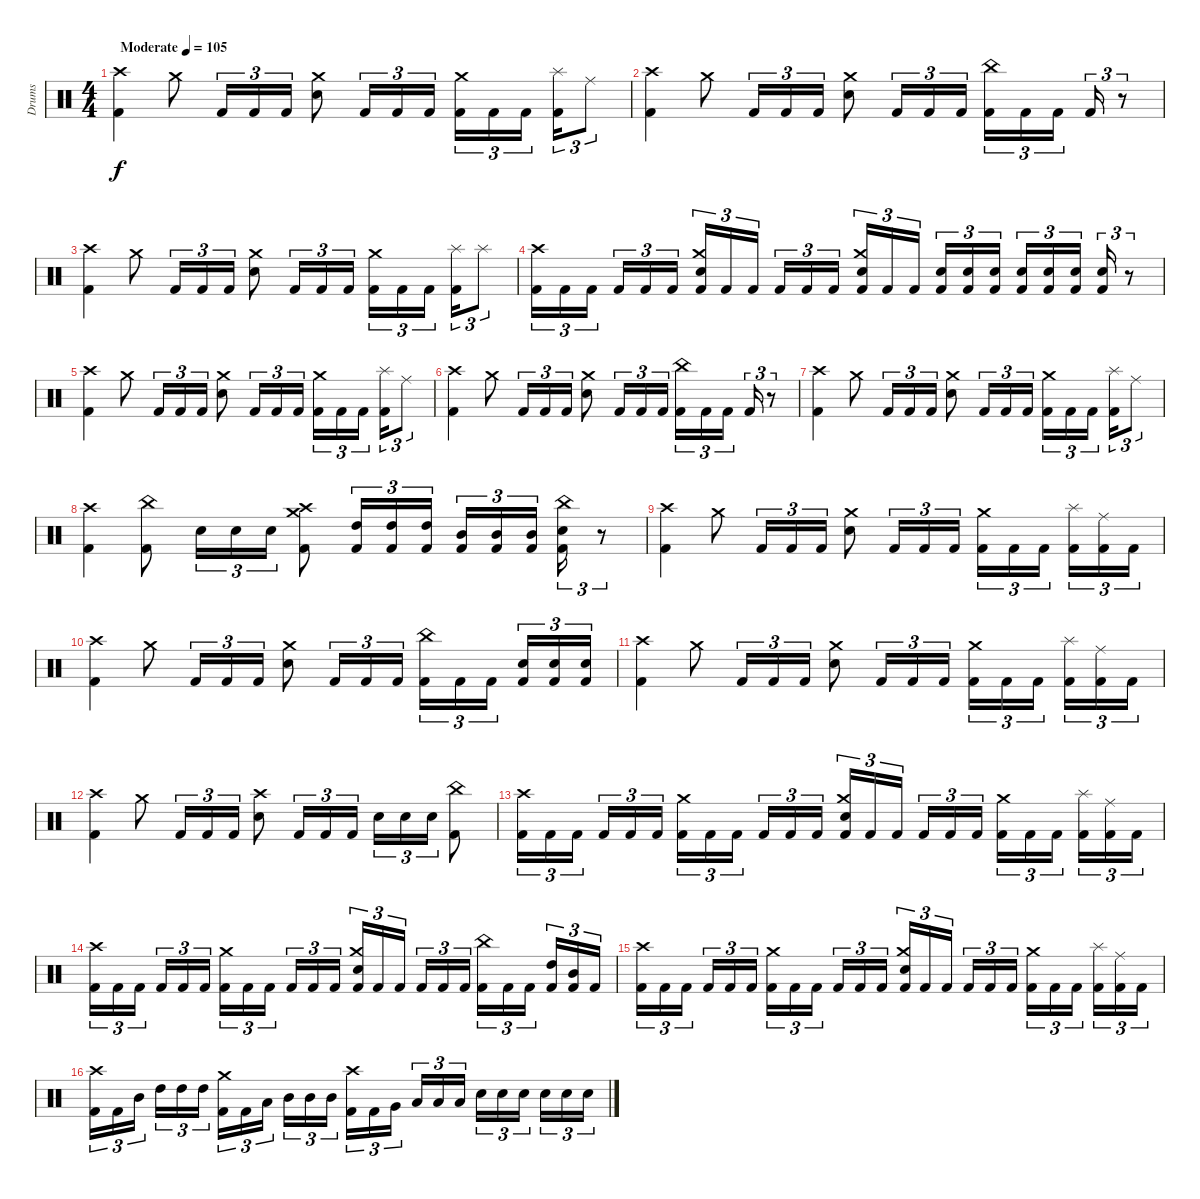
\track ("Drums" "Drums") {instrument percussion}
\staff {score}
\articulation defaults
\ts (4 4)
\tempo (105 "Moderate")
\clef neutral
\ks c
("Crash high (hit)" "Kick (hit) 2").4{dy f} "Crash medium (hit)".8 "Kick (hit) 2".16{tu (3 2)} "Kick (hit) 2".16{tu (3 2)} "Kick (hit) 2".16{tu (3 2)} ("Crash medium (hit)" "Electric Snare (hit)").8 "Kick (hit) 2".16{tu (3 2)} "Kick (hit) 2".16{tu (3 2)} "Kick (hit) 2".16{tu (3 2)} ("Crash medium (hit)" "Kick (hit) 2").16{tu (3 2)} "Kick (hit) 2".16{tu (3 2)} "Kick (hit) 2".16{tu (3 2) beam splitsecondary} ("Splash (hit)" "Kick (hit) 2").16{tu (3 2)} "Ride (middle)".8{tu (3 2)} |
("Crash high (hit)" "Kick (hit) 2").4 "Crash medium (hit)".8 "Kick (hit) 2".16{tu (3 2)} "Kick (hit) 2".16{tu (3 2)} "Kick (hit) 2".16{tu (3 2)} ("Crash medium (hit)" "Electric Snare (hit)").8 "Kick (hit) 2".16{tu (3 2)} "Kick (hit) 2".16{tu (3 2)} "Kick (hit) 2".16{tu (3 2)} ("China (hit)" "Kick (hit) 2").16{tu (3 2)} "Kick (hit) 2".16{tu (3 2)} "Kick (hit) 2".16{tu (3 2) beam splitsecondary} "Kick (hit) 2".16{tu (3 2)} r.8{tu (3 2)} |
("Crash high (hit)" "Kick (hit) 2").4 "Crash medium (hit)".8 "Kick (hit) 2".16{tu (3 2)} "Kick (hit) 2".16{tu (3 2)} "Kick (hit) 2".16{tu (3 2)} ("Crash medium (hit)" "Electric Snare (hit)").8 "Kick (hit) 2".16{tu (3 2)} "Kick (hit) 2".16{tu (3 2)} "Kick (hit) 2".16{tu (3 2)} ("Crash medium (hit)" "Kick (hit) 2").16{tu (3 2)} "Kick (hit) 2".16{tu (3 2)} "Kick (hit) 2".16{tu (3 2) beam splitsecondary} ("Splash (hit)" "Kick (hit) 2").16{tu (3 2)} "Splash (hit)".8{tu (3 2)} |
("Crash high (hit)" "Kick (hit) 2").16{tu (3 2)} "Kick (hit) 2".16{tu (3 2)} "Kick (hit) 2".16{tu (3 2) beam splitsecondary} "Kick (hit) 2".16{tu (3 2)} "Kick (hit) 2".16{tu (3 2)} "Kick (hit) 2".16{tu (3 2)} ("Crash medium (hit)" "Electric Snare (hit)" "Kick (hit) 2").16{tu (3 2)} "Kick (hit) 2".16{tu (3 2)} "Kick (hit) 2".16{tu (3 2) beam splitsecondary} "Kick (hit) 2".16{tu (3 2)} "Kick (hit) 2".16{tu (3 2)} "Kick (hit) 2".16{tu (3 2)} ("Crash medium (hit)" "Electric Snare (hit)" "Kick (hit) 2").16{tu (3 2)} "Kick (hit) 2".16{tu (3 2)} "Kick (hit) 2".16{tu (3 2) beam splitsecondary} ("Electric Snare (hit)" "Kick (hit) 2").16{tu (3 2)} ("Electric Snare (hit)" "Kick (hit) 2").16{tu (3 2)} ("Electric Snare (hit)" "Kick (hit) 2").16{tu (3 2)} ("Electric Snare (hit)" "Kick (hit) 2").16{tu (3 2)} ("Electric Snare (hit)" "Kick (hit) 2").16{tu (3 2)} ("Electric Snare (hit)" "Kick (hit) 2").16{tu (3 2) beam splitsecondary} ("Electric Snare (hit)" "Kick (hit) 2").16{tu (3 2)} r.8{tu (3 2)} |
("Crash high (hit)" "Kick (hit) 2").4 "Crash medium (hit)".8 "Kick (hit) 2".16{tu (3 2)} "Kick (hit) 2".16{tu (3 2)} "Kick (hit) 2".16{tu (3 2)} ("Crash medium (hit)" "Electric Snare (hit)").8 "Kick (hit) 2".16{tu (3 2)} "Kick (hit) 2".16{tu (3 2)} "Kick (hit) 2".16{tu (3 2)} ("Crash medium (hit)" "Kick (hit) 2").16{tu (3 2)} "Kick (hit) 2".16{tu (3 2)} "Kick (hit) 2".16{tu (3 2) beam splitsecondary} ("Splash (hit)" "Kick (hit) 2").16{tu (3 2)} "Ride (middle)".8{tu (3 2)} |
("Crash high (hit)" "Kick (hit) 2").4 "Crash medium (hit)".8 "Kick (hit) 2".16{tu (3 2)} "Kick (hit) 2".16{tu (3 2)} "Kick (hit) 2".16{tu (3 2)} ("Crash medium (hit)" "Electric Snare (hit)").8 "Kick (hit) 2".16{tu (3 2)} "Kick (hit) 2".16{tu (3 2)} "Kick (hit) 2".16{tu (3 2)} ("China (hit)" "Kick (hit) 2").16{tu (3 2)} "Kick (hit) 2".16{tu (3 2)} "Kick (hit) 2".16{tu (3 2) beam splitsecondary} "Kick (hit) 2".16{tu (3 2)} r.8{tu (3 2)} |
("Crash high (hit)" "Kick (hit) 2").4 "Crash medium (hit)".8 "Kick (hit) 2".16{tu (3 2)} "Kick (hit) 2".16{tu (3 2)} "Kick (hit) 2".16{tu (3 2)} ("Crash medium (hit)" "Electric Snare (hit)").8 "Kick (hit) 2".16{tu (3 2)} "Kick (hit) 2".16{tu (3 2)} "Kick (hit) 2".16{tu (3 2)} ("Crash medium (hit)" "Kick (hit) 2").16{tu (3 2)} "Kick (hit) 2".16{tu (3 2)} "Kick (hit) 2".16{tu (3 2) beam splitsecondary} ("Splash (hit)" "Kick (hit) 2").16{tu (3 2)} "Ride (middle)".8{tu (3 2)} |
("Crash high (hit)" "Kick (hit) 2").4 ("China (hit)" "Kick (hit) 2").8 "Electric Snare (hit)".16{tu (3 2)} "Electric Snare (hit)".16{tu (3 2)} "Electric Snare (hit)".16{tu (3 2)} ("Crash high (hit)" "Crash medium (hit)" "Kick (hit) 2").8 ("High Tom (hit)" "Kick (hit) 2").16{tu (3 2)} ("High Tom (hit)" "Kick (hit) 2").16{tu (3 2)} ("High Tom (hit)" "Kick (hit) 2").16{tu (3 2)} ("Mid Tom (hit)" "Kick (hit) 2").16{tu (3 2)} ("Mid Tom (hit)" "Kick (hit) 2").16{tu (3 2)} ("Mid Tom (hit)" "Kick (hit) 2").16{tu (3 2) beam splitsecondary} ("China (hit)" "Electric Snare (hit)" "Kick (hit) 2").16{tu (3 2)} r.8{tu (3 2)} |
("Crash high (hit)" "Kick (hit) 2").4 "Crash medium (hit)".8 "Kick (hit) 2".16{tu (3 2)} "Kick (hit) 2".16{tu (3 2)} "Kick (hit) 2".16{tu (3 2)} ("Crash medium (hit)" "Electric Snare (hit)").8 "Kick (hit) 2".16{tu (3 2)} "Kick (hit) 2".16{tu (3 2)} "Kick (hit) 2".16{tu (3 2)} ("Crash medium (hit)" "Kick (hit) 2").16{tu (3 2)} "Kick (hit) 2".16{tu (3 2)} "Kick (hit) 2".16{tu (3 2) beam splitsecondary} ("Splash (hit)" "Kick (hit) 2").16{tu (3 2)} ("Ride (middle)" "Kick (hit) 2").16{tu (3 2)} "Kick (hit) 2".16{tu (3 2)} |
("Crash high (hit)" "Kick (hit) 2").4 "Crash medium (hit)".8 "Kick (hit) 2".16{tu (3 2)} "Kick (hit) 2".16{tu (3 2)} "Kick (hit) 2".16{tu (3 2)} ("Crash medium (hit)" "Electric Snare (hit)").8 "Kick (hit) 2".16{tu (3 2)} "Kick (hit) 2".16{tu (3 2)} "Kick (hit) 2".16{tu (3 2)} ("China (hit)" "Kick (hit) 2").16{tu (3 2)} "Kick (hit) 2".16{tu (3 2)} "Kick (hit) 2".16{tu (3 2) beam splitsecondary} ("Electric Snare (hit)" "Kick (hit) 2").16{tu (3 2)} ("Electric Snare (hit)" "Kick (hit) 2").16{tu (3 2)} ("Electric Snare (hit)" "Kick (hit) 2").16{tu (3 2)} |
("Crash high (hit)" "Kick (hit) 2").4 "Crash medium (hit)".8 "Kick (hit) 2".16{tu (3 2)} "Kick (hit) 2".16{tu (3 2)} "Kick (hit) 2".16{tu (3 2)} ("Crash medium (hit)" "Electric Snare (hit)").8 "Kick (hit) 2".16{tu (3 2)} "Kick (hit) 2".16{tu (3 2)} "Kick (hit) 2".16{tu (3 2)} ("Crash medium (hit)" "Kick (hit) 2").16{tu (3 2)} "Kick (hit) 2".16{tu (3 2)} "Kick (hit) 2".16{tu (3 2) beam splitsecondary} ("Splash (hit)" "Kick (hit) 2").16{tu (3 2)} ("Ride (middle)" "Kick (hit) 2").16{tu (3 2)} "Kick (hit) 2".16{tu (3 2)} |
("Crash high (hit)" "Kick (hit) 2").4 "Crash medium (hit)".8 "Kick (hit) 2".16{tu (3 2)} "Kick (hit) 2".16{tu (3 2)} "Kick (hit) 2".16{tu (3 2)} ("Crash high (hit)" "Electric Snare (hit)").8 "Kick (hit) 2".16{tu (3 2)} "Kick (hit) 2".16{tu (3 2)} "Kick (hit) 2".16{tu (3 2)} "Electric Snare (hit)".16{tu (3 2)} "Electric Snare (hit)".16{tu (3 2)} "Electric Snare (hit)".16{tu (3 2)} ("China (hit)" "Kick (hit) 2").8 |
("Crash high (hit)" "Kick (hit) 2").16{tu (3 2)} "Kick (hit) 2".16{tu (3 2)} "Kick (hit) 2".16{tu (3 2) beam splitsecondary} "Kick (hit) 2".16{tu (3 2)} "Kick (hit) 2".16{tu (3 2)} "Kick (hit) 2".16{tu (3 2)} ("Crash medium (hit)" "Kick (hit) 2").16{tu (3 2)} "Kick (hit) 2".16{tu (3 2)} "Kick (hit) 2".16{tu (3 2) beam splitsecondary} "Kick (hit) 2".16{tu (3 2)} "Kick (hit) 2".16{tu (3 2)} "Kick (hit) 2".16{tu (3 2)} ("Crash medium (hit)" "Electric Snare (hit)" "Kick (hit) 2").16{tu (3 2)} "Kick (hit) 2".16{tu (3 2)} "Kick (hit) 2".16{tu (3 2) beam splitsecondary} "Kick (hit) 2".16{tu (3 2)} "Kick (hit) 2".16{tu (3 2)} "Kick (hit) 2".16{tu (3 2)} ("Crash medium (hit)" "Kick (hit) 2").16{tu (3 2)} "Kick (hit) 2".16{tu (3 2)} "Kick (hit) 2".16{tu (3 2) beam splitsecondary} ("Splash (hit)" "Kick (hit) 2").16{tu (3 2)} ("Ride (middle)" "Kick (hit) 2").16{tu (3 2)} "Kick (hit) 2".16{tu (3 2)} |
("Crash high (hit)" "Kick (hit) 2").16{tu (3 2)} "Kick (hit) 2".16{tu (3 2)} "Kick (hit) 2".16{tu (3 2) beam splitsecondary} "Kick (hit) 2".16{tu (3 2)} "Kick (hit) 2".16{tu (3 2)} "Kick (hit) 2".16{tu (3 2)} ("Crash medium (hit)" "Kick (hit) 2").16{tu (3 2)} "Kick (hit) 2".16{tu (3 2)} "Kick (hit) 2".16{tu (3 2) beam splitsecondary} "Kick (hit) 2".16{tu (3 2)} "Kick (hit) 2".16{tu (3 2)} "Kick (hit) 2".16{tu (3 2)} ("Crash medium (hit)" "Electric Snare (hit)" "Kick (hit) 2").16{tu (3 2)} "Kick (hit) 2".16{tu (3 2)} "Kick (hit) 2".16{tu (3 2) beam splitsecondary} "Kick (hit) 2".16{tu (3 2)} "Kick (hit) 2".16{tu (3 2)} "Kick (hit) 2".16{tu (3 2)} ("China (hit)" "Kick (hit) 2").16{tu (3 2)} "Kick (hit) 2".16{tu (3 2)} "Kick (hit) 2".16{tu (3 2) beam splitsecondary} ("High Tom (hit)" "Kick (hit) 2").16{tu (3 2)} ("Mid Tom (hit)" "Kick (hit) 2").16{tu (3 2)} "Kick (hit) 2".16{tu (3 2)} |
("Crash high (hit)" "Kick (hit) 2").16{tu (3 2)} "Kick (hit) 2".16{tu (3 2)} "Kick (hit) 2".16{tu (3 2) beam splitsecondary} "Kick (hit) 2".16{tu (3 2)} "Kick (hit) 2".16{tu (3 2)} "Kick (hit) 2".16{tu (3 2)} ("Crash medium (hit)" "Kick (hit) 2").16{tu (3 2)} "Kick (hit) 2".16{tu (3 2)} "Kick (hit) 2".16{tu (3 2) beam splitsecondary} "Kick (hit) 2".16{tu (3 2)} "Kick (hit) 2".16{tu (3 2)} "Kick (hit) 2".16{tu (3 2)} ("Crash medium (hit)" "Electric Snare (hit)" "Kick (hit) 2").16{tu (3 2)} "Kick (hit) 2".16{tu (3 2)} "Kick (hit) 2".16{tu (3 2) beam splitsecondary} "Kick (hit) 2".16{tu (3 2)} "Kick (hit) 2".16{tu (3 2)} "Kick (hit) 2".16{tu (3 2)} ("Crash medium (hit)" "Kick (hit) 2").16{tu (3 2)} "Kick (hit) 2".16{tu (3 2)} "Kick (hit) 2".16{tu (3 2) beam splitsecondary} ("Splash (hit)" "Kick (hit) 2").16{tu (3 2)} ("Ride (middle)" "Kick (hit) 2").16{tu (3 2)} "Kick (hit) 2".16{tu (3 2)} |
("Crash high (hit)" "Kick (hit) 2").16{tu (3 2)} "Kick (hit) 2".16{tu (3 2)} "Mid Tom (hit)".16{tu (3 2) beam splitsecondary} "High Tom (hit)".16{tu (3 2)} "High Tom (hit)".16{tu (3 2)} "High Tom (hit)".16{tu (3 2)} ("Crash medium (hit)" "Kick (hit) 2").16{tu (3 2)} "Kick (hit) 2".16{tu (3 2)} "Low Tom (hit)".16{tu (3 2) beam splitsecondary} "Mid Tom (hit)".16{tu (3 2)} "Mid Tom (hit)".16{tu (3 2)} "Mid Tom (hit)".16{tu (3 2)} ("Crash high (hit)" "Kick (hit) 2").16{tu (3 2)} "Kick (hit) 2".16{tu (3 2)} "Very Low Tom (hit)".16{tu (3 2) beam splitsecondary} "Low Tom (hit)".16{tu (3 2)} "Low Tom (hit)".16{tu (3 2)} "Low Tom (hit)".16{tu (3 2)} "Electric Snare (hit)".16{tu (3 2)} "Electric Snare (hit)".16{tu (3 2)} "Electric Snare (hit)".16{tu (3 2) beam splitsecondary} "Electric Snare (hit)".16{tu (3 2)} "Electric Snare (hit)".16{tu (3 2)} "Electric Snare (hit)".16{tu (3 2)}
